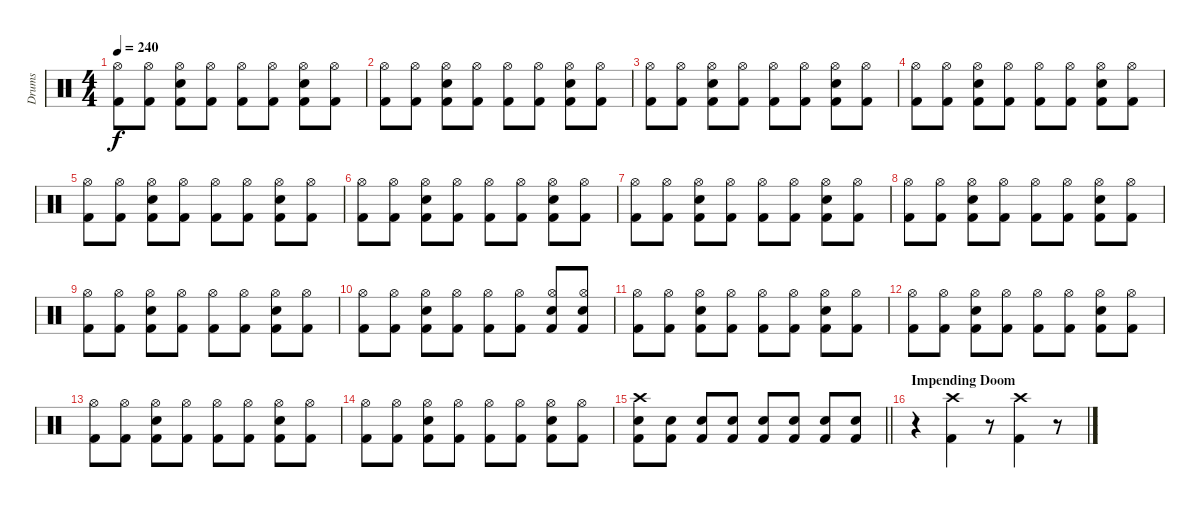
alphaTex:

\track ("Drums" "Drums") {instrument percussion}
\staff {score}
\articulation defaults
\ts (4 4)
\tempo 240
\clef neutral
\ks c
("Kick (hit) 2" "Hi-Hat (open)").8{dy f} ("Kick (hit) 2" "Hi-Hat (open)").8 ("Kick (hit) 2" "Snare (hit) 2" "Hi-Hat (open)").8 ("Kick (hit) 2" "Hi-Hat (open)").8 ("Kick (hit) 2" "Hi-Hat (open)").8 ("Kick (hit) 2" "Hi-Hat (open)").8 ("Kick (hit) 2" "Snare (hit) 2" "Hi-Hat (open)").8 ("Kick (hit) 2" "Hi-Hat (open)").8 |
("Kick (hit) 2" "Hi-Hat (open)").8 ("Kick (hit) 2" "Hi-Hat (open)").8 ("Kick (hit) 2" "Snare (hit) 2" "Hi-Hat (open)").8 ("Kick (hit) 2" "Hi-Hat (open)").8 ("Kick (hit) 2" "Hi-Hat (open)").8 ("Kick (hit) 2" "Hi-Hat (open)").8 ("Kick (hit) 2" "Snare (hit) 2" "Hi-Hat (open)").8 ("Kick (hit) 2" "Hi-Hat (open)").8 |
("Kick (hit) 2" "Hi-Hat (open)").8 ("Kick (hit) 2" "Hi-Hat (open)").8 ("Kick (hit) 2" "Snare (hit) 2" "Hi-Hat (open)").8 ("Kick (hit) 2" "Hi-Hat (open)").8 ("Kick (hit) 2" "Hi-Hat (open)").8 ("Kick (hit) 2" "Hi-Hat (open)").8 ("Kick (hit) 2" "Snare (hit) 2" "Hi-Hat (open)").8 ("Kick (hit) 2" "Hi-Hat (open)").8 |
("Kick (hit) 2" "Hi-Hat (open)").8 ("Kick (hit) 2" "Hi-Hat (open)").8 ("Kick (hit) 2" "Snare (hit) 2" "Hi-Hat (open)").8 ("Kick (hit) 2" "Hi-Hat (open)").8 ("Kick (hit) 2" "Hi-Hat (open)").8 ("Kick (hit) 2" "Hi-Hat (open)").8 ("Kick (hit) 2" "Snare (hit) 2" "Hi-Hat (open)").8 ("Kick (hit) 2" "Hi-Hat (open)").8 |
("Kick (hit) 2" "Hi-Hat (open)").8 ("Kick (hit) 2" "Hi-Hat (open)").8 ("Kick (hit) 2" "Snare (hit) 2" "Hi-Hat (open)").8 ("Kick (hit) 2" "Hi-Hat (open)").8 ("Kick (hit) 2" "Hi-Hat (open)").8 ("Kick (hit) 2" "Hi-Hat (open)").8 ("Kick (hit) 2" "Snare (hit) 2" "Hi-Hat (open)").8 ("Kick (hit) 2" "Hi-Hat (open)").8 |
("Kick (hit) 2" "Hi-Hat (open)").8 ("Kick (hit) 2" "Hi-Hat (open)").8 ("Kick (hit) 2" "Snare (hit) 2" "Hi-Hat (open)").8 ("Kick (hit) 2" "Hi-Hat (open)").8 ("Kick (hit) 2" "Hi-Hat (open)").8 ("Kick (hit) 2" "Hi-Hat (open)").8 ("Kick (hit) 2" "Snare (hit) 2" "Hi-Hat (open)").8 ("Kick (hit) 2" "Hi-Hat (open)").8 |
("Kick (hit) 2" "Hi-Hat (open)").8 ("Kick (hit) 2" "Hi-Hat (open)").8 ("Kick (hit) 2" "Snare (hit) 2" "Hi-Hat (open)").8 ("Kick (hit) 2" "Hi-Hat (open)").8 ("Kick (hit) 2" "Hi-Hat (open)").8 ("Kick (hit) 2" "Hi-Hat (open)").8 ("Kick (hit) 2" "Snare (hit) 2" "Hi-Hat (open)").8 ("Kick (hit) 2" "Hi-Hat (open)").8 |
("Kick (hit) 2" "Hi-Hat (open)").8 ("Kick (hit) 2" "Hi-Hat (open)").8 ("Kick (hit) 2" "Snare (hit) 2" "Hi-Hat (open)").8 ("Kick (hit) 2" "Hi-Hat (open)").8 ("Kick (hit) 2" "Hi-Hat (open)").8 ("Kick (hit) 2" "Hi-Hat (open)").8 ("Kick (hit) 2" "Snare (hit) 2" "Hi-Hat (open)").8 ("Kick (hit) 2" "Hi-Hat (open)").8 |
("Kick (hit) 2" "Hi-Hat (open)").8 ("Kick (hit) 2" "Hi-Hat (open)").8 ("Kick (hit) 2" "Snare (hit) 2" "Hi-Hat (open)").8 ("Kick (hit) 2" "Hi-Hat (open)").8 ("Kick (hit) 2" "Hi-Hat (open)").8 ("Kick (hit) 2" "Hi-Hat (open)").8 ("Kick (hit) 2" "Snare (hit) 2" "Hi-Hat (open)").8 ("Kick (hit) 2" "Hi-Hat (open)").8 |
("Kick (hit) 2" "Hi-Hat (open)").8 ("Kick (hit) 2" "Hi-Hat (open)").8 ("Kick (hit) 2" "Snare (hit) 2" "Hi-Hat (open)").8 ("Kick (hit) 2" "Hi-Hat (open)").8 ("Kick (hit) 2" "Hi-Hat (open)").8 ("Kick (hit) 2" "Hi-Hat (open)").8 ("Kick (hit) 2" "Snare (hit) 2" "Hi-Hat (open)").8 ("Kick (hit) 2" "Snare (hit) 2" "Hi-Hat (open)").8 |
("Kick (hit) 2" "Hi-Hat (open)").8 ("Kick (hit) 2" "Hi-Hat (open)").8 ("Kick (hit) 2" "Snare (hit) 2" "Hi-Hat (open)").8 ("Kick (hit) 2" "Hi-Hat (open)").8 ("Kick (hit) 2" "Hi-Hat (open)").8 ("Kick (hit) 2" "Hi-Hat (open)").8 ("Kick (hit) 2" "Snare (hit) 2" "Hi-Hat (open)").8 ("Kick (hit) 2" "Hi-Hat (open)").8 |
("Kick (hit) 2" "Hi-Hat (open)").8 ("Kick (hit) 2" "Hi-Hat (open)").8 ("Kick (hit) 2" "Snare (hit) 2" "Hi-Hat (open)").8 ("Kick (hit) 2" "Hi-Hat (open)").8 ("Kick (hit) 2" "Hi-Hat (open)").8 ("Kick (hit) 2" "Hi-Hat (open)").8 ("Kick (hit) 2" "Snare (hit) 2" "Hi-Hat (open)").8 ("Kick (hit) 2" "Hi-Hat (open)").8 |
("Kick (hit) 2" "Hi-Hat (open)").8 ("Kick (hit) 2" "Hi-Hat (open)").8 ("Kick (hit) 2" "Snare (hit) 2" "Hi-Hat (open)").8 ("Kick (hit) 2" "Hi-Hat (open)").8 ("Kick (hit) 2" "Hi-Hat (open)").8 ("Kick (hit) 2" "Hi-Hat (open)").8 ("Kick (hit) 2" "Snare (hit) 2" "Hi-Hat (open)").8 ("Kick (hit) 2" "Hi-Hat (open)").8 |
("Kick (hit) 2" "Hi-Hat (open)").8 ("Kick (hit) 2" "Hi-Hat (open)").8 ("Kick (hit) 2" "Snare (hit) 2" "Hi-Hat (open)").8 ("Kick (hit) 2" "Hi-Hat (open)").8 ("Kick (hit) 2" "Hi-Hat (open)").8 ("Kick (hit) 2" "Hi-Hat (open)").8 ("Kick (hit) 2" "Snare (hit) 2" "Hi-Hat (open)").8 ("Kick (hit) 2" "Hi-Hat (open)").8 |
\barLineRight lightlight
("Kick (hit) 2" "Snare (hit) 2" "Crash high (hit)").8 ("Kick (hit) 2" "Snare (hit) 2").8 ("Kick (hit) 2" "Snare (hit) 2").8 ("Kick (hit) 2" "Snare (hit) 2").8 ("Kick (hit) 2" "Snare (hit) 2").8 ("Kick (hit) 2" "Snare (hit) 2").8 ("Kick (hit) 2" "Snare (hit) 2").8 ("Kick (hit) 2" "Snare (hit) 2").8 |
\section ("" "Impending Doom")
r.4 ("Crash high (hit)" "Kick (hit) 2").4 r.8 ("Crash high (hit)" "Kick (hit) 2").4 r.8
